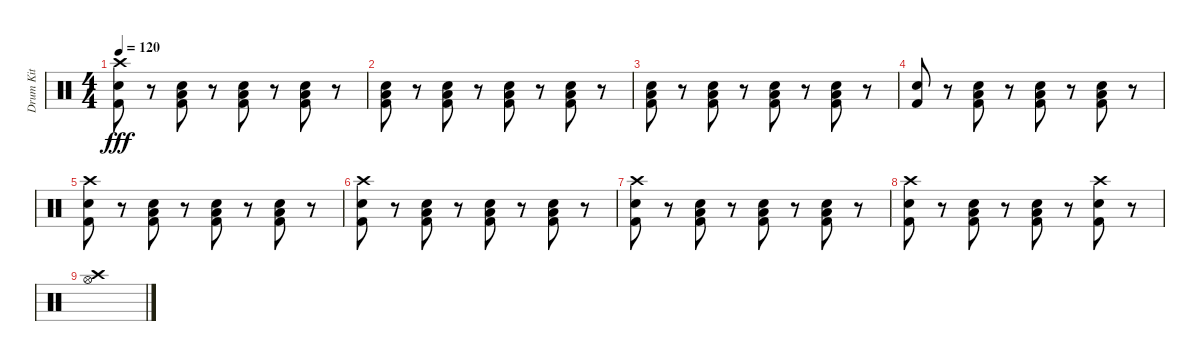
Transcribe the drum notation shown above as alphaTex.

\track ("Drum Kit" "Drum Kit") {instrument percussion}
\staff {score}
\articulation defaults
\ts (4 4)
\tempo 120
\clef neutral
\ks c
("Crash high (hit)" "Snare (hit) 2" "Kick (hit) 2").8{dy fff} r.8 ("Low Floor Tom (hit)" "Snare (hit) 2" "Kick (hit) 2").8 r.8 ("Low Floor Tom (hit)" "Snare (hit) 2" "Kick (hit) 2").8 r.8 ("Low Floor Tom (hit)" "Snare (hit) 2" "Kick (hit) 2").8 r.8 |
("Low Floor Tom (hit)" "Snare (hit) 2" "Kick (hit) 2").8 r.8 ("Low Floor Tom (hit)" "Snare (hit) 2" "Kick (hit) 2").8 r.8 ("Low Floor Tom (hit)" "Snare (hit) 2" "Kick (hit) 2").8 r.8 ("Low Floor Tom (hit)" "Snare (hit) 2" "Kick (hit) 2").8 r.8 |
("Low Floor Tom (hit)" "Snare (hit) 2" "Kick (hit) 2").8 r.8 ("Low Floor Tom (hit)" "Snare (hit) 2" "Kick (hit) 2").8 r.8 ("Low Floor Tom (hit)" "Snare (hit) 2" "Kick (hit) 2").8 r.8 ("Low Floor Tom (hit)" "Snare (hit) 2" "Kick (hit) 2").8 r.8 |
("Snare (hit) 2" "Kick (hit) 2").8 r.8 ("Low Floor Tom (hit)" "Snare (hit) 2" "Kick (hit) 2").8 r.8 ("Low Floor Tom (hit)" "Snare (hit) 2" "Kick (hit) 2").8 r.8 ("Low Floor Tom (hit)" "Snare (hit) 2" "Kick (hit) 2").8 r.8 |
("Crash high (hit)" "Snare (hit) 2" "Kick (hit) 2").8 r.8 ("Low Floor Tom (hit)" "Snare (hit) 2" "Kick (hit) 2").8 r.8 ("Low Floor Tom (hit)" "Snare (hit) 2" "Kick (hit) 2").8 r.8 ("Low Floor Tom (hit)" "Snare (hit) 2" "Kick (hit) 2").8 r.8 |
("Crash high (hit)" "Snare (hit) 2" "Kick (hit) 2").8 r.8 ("Low Floor Tom (hit)" "Snare (hit) 2" "Kick (hit) 2").8 r.8 ("Low Floor Tom (hit)" "Snare (hit) 2" "Kick (hit) 2").8 r.8 ("Low Floor Tom (hit)" "Snare (hit) 2" "Kick (hit) 2").8 r.8 |
("Crash high (hit)" "Snare (hit) 2" "Kick (hit) 2").8 r.8 ("Low Floor Tom (hit)" "Snare (hit) 2" "Kick (hit) 2").8 r.8 ("Low Floor Tom (hit)" "Snare (hit) 2" "Kick (hit) 2").8 r.8 ("Low Floor Tom (hit)" "Snare (hit) 2" "Kick (hit) 2").8 r.8 |
("Crash high (hit)" "Snare (hit) 2" "Kick (hit) 2").8 r.8 ("Low Floor Tom (hit)" "Snare (hit) 2" "Kick (hit) 2").8 r.8 ("Low Floor Tom (hit)" "Snare (hit) 2" "Kick (hit) 2").8 r.8 ("Crash high (hit)" "Snare (hit) 2" "Kick (hit) 2").8 r.8 |
("Crash high (hit)" "Hi-Hat (open)").1
